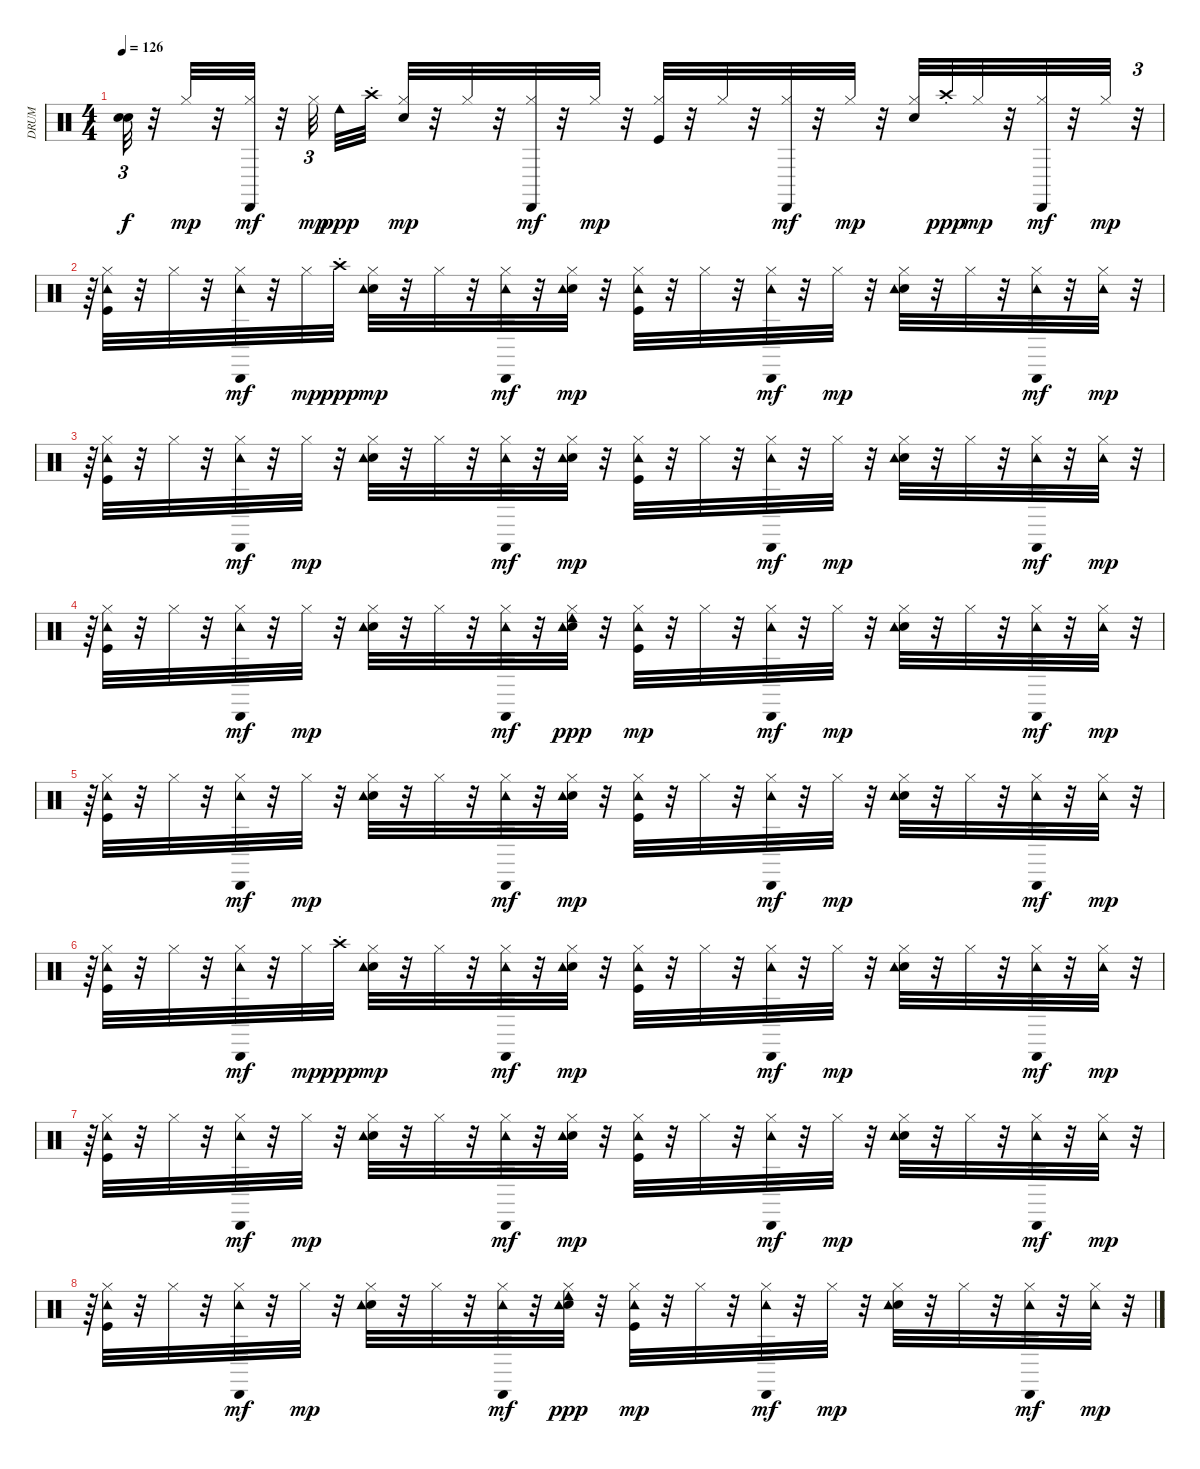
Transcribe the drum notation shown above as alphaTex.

\track ("DRUM" "DRUM") {instrument percussion}
\staff {score}
\articulation defaults
\ts (4 4)
\tempo 126
\clef neutral
\ks c
("Snare (hit)"{t} "Snare (hit)"{t}).32{tu (3 2) dy f} r.32 "Hi-Hat (closed)".32{dy mp} r.32 ("Hi-Hat (closed)" "Cabasa (hit)").32{dy mf} r.32 "Hi-Hat (closed)".32{tu (3 2) dy mp} "Cowbell low (hit)".32{dy ppp} "Crash high (choke)".32 ("Snare (hit) 2" "Hi-Hat (closed)").32{dy mp} r.32 "Hi-Hat (closed)".32 r.32 ("Hi-Hat (closed)" "Cabasa (hit)").32{dy mf} r.32 "Hi-Hat (closed)".32{dy mp} r.32 ("Kick (hit)" "Hi-Hat (closed)").32 r.32 "Hi-Hat (closed)".32 r.32 ("Hi-Hat (closed)" "Cabasa (hit)").32{dy mf} r.32 "Hi-Hat (closed)".32{dy mp} r.32 ("Snare (hit) 2" "Hi-Hat (closed)").32 "Crash high (choke)".32{dy ppp} "Hi-Hat (closed)".32{dy mp} r.32 ("Hi-Hat (closed)" "Cabasa (hit)").32{dy mf} r.32 "Hi-Hat (closed)".32{dy mp} r.32{tu (3 2)} |
r.64{tu (3 2)} ("Kick (hit)" "Hi-Hat (closed)" "Tambourine (hit)").32 r.32 "Hi-Hat (closed)".32 r.32 ("Hi-Hat (closed)" "Tambourine (hit)" "Cabasa (hit)").32{dy mf} r.32 "Hi-Hat (closed)".32{dy mp} "Crash high (choke)".32{dy ppp} ("Snare (hit) 2" "Hi-Hat (closed)" "Tambourine (hit)").32{dy mp} r.32 "Hi-Hat (closed)".32 r.32 ("Hi-Hat (closed)" "Tambourine (hit)" "Cabasa (hit)").32{dy mf} r.32 ("Snare (hit) 2" "Hi-Hat (closed)" "Tambourine (hit)").32{dy mp} r.32 ("Kick (hit)" "Hi-Hat (closed)" "Tambourine (hit)").32 r.32 "Hi-Hat (closed)".32 r.32 ("Hi-Hat (closed)" "Tambourine (hit)" "Cabasa (hit)").32{dy mf} r.32 "Hi-Hat (closed)".32{dy mp} r.32 ("Snare (hit) 2" "Hi-Hat (closed)" "Tambourine (hit)").32 r.32 "Hi-Hat (closed)".32 r.32 ("Hi-Hat (closed)" "Tambourine (hit)" "Cabasa (hit)").32{dy mf} r.32 ("Hi-Hat (closed)" "Tambourine (hit)").32{dy mp} r.32{tu (3 2)} |
r.64{tu (3 2)} ("Kick (hit)" "Hi-Hat (closed)" "Tambourine (hit)").32 r.32 "Hi-Hat (closed)".32 r.32 ("Hi-Hat (closed)" "Tambourine (hit)" "Cabasa (hit)").32{dy mf} r.32 "Hi-Hat (closed)".32{dy mp} r.32 ("Snare (hit) 2" "Hi-Hat (closed)" "Tambourine (hit)").32 r.32 "Hi-Hat (closed)".32 r.32 ("Hi-Hat (closed)" "Tambourine (hit)" "Cabasa (hit)").32{dy mf} r.32 ("Snare (hit) 2" "Hi-Hat (closed)" "Tambourine (hit)").32{dy mp} r.32 ("Kick (hit)" "Hi-Hat (closed)" "Tambourine (hit)").32 r.32 "Hi-Hat (closed)".32 r.32 ("Hi-Hat (closed)" "Tambourine (hit)" "Cabasa (hit)").32{dy mf} r.32 "Hi-Hat (closed)".32{dy mp} r.32 ("Snare (hit) 2" "Hi-Hat (closed)" "Tambourine (hit)").32 r.32 "Hi-Hat (closed)".32 r.32 ("Hi-Hat (closed)" "Tambourine (hit)" "Cabasa (hit)").32{dy mf} r.32 ("Hi-Hat (closed)" "Tambourine (hit)").32{dy mp} r.32{tu (3 2)} |
r.64{tu (3 2)} ("Kick (hit)" "Hi-Hat (closed)" "Tambourine (hit)").32 r.32 "Hi-Hat (closed)".32 r.32 ("Hi-Hat (closed)" "Tambourine (hit)" "Cabasa (hit)").32{dy mf} r.32 "Hi-Hat (closed)".32{dy mp} r.32 ("Snare (hit) 2" "Hi-Hat (closed)" "Tambourine (hit)").32 r.32 "Hi-Hat (closed)".32 r.32 ("Hi-Hat (closed)" "Tambourine (hit)" "Cabasa (hit)").32{dy mf} r.32 ("Snare (hit) 2" "Hi-Hat (closed)" "Tambourine (hit)" "Cowbell low (hit)").32{dy ppp} r.32 ("Kick (hit)" "Hi-Hat (closed)" "Tambourine (hit)").32{dy mp} r.32 "Hi-Hat (closed)".32 r.32 ("Hi-Hat (closed)" "Tambourine (hit)" "Cabasa (hit)").32{dy mf} r.32 "Hi-Hat (closed)".32{dy mp} r.32 ("Snare (hit) 2" "Hi-Hat (closed)" "Tambourine (hit)").32 r.32 "Hi-Hat (closed)".32 r.32 ("Hi-Hat (closed)" "Tambourine (hit)" "Cabasa (hit)").32{dy mf} r.32 ("Hi-Hat (closed)" "Tambourine (hit)").32{dy mp} r.32{tu (3 2)} |
r.64{tu (3 2)} ("Kick (hit)" "Hi-Hat (closed)" "Tambourine (hit)").32 r.32 "Hi-Hat (closed)".32 r.32 ("Hi-Hat (closed)" "Tambourine (hit)" "Cabasa (hit)").32{dy mf} r.32 "Hi-Hat (closed)".32{dy mp} r.32 ("Snare (hit) 2" "Hi-Hat (closed)" "Tambourine (hit)").32 r.32 "Hi-Hat (closed)".32 r.32 ("Hi-Hat (closed)" "Tambourine (hit)" "Cabasa (hit)").32{dy mf} r.32 ("Snare (hit) 2" "Hi-Hat (closed)" "Tambourine (hit)").32{dy mp} r.32 ("Kick (hit)" "Hi-Hat (closed)" "Tambourine (hit)").32 r.32 "Hi-Hat (closed)".32 r.32 ("Hi-Hat (closed)" "Tambourine (hit)" "Cabasa (hit)").32{dy mf} r.32 "Hi-Hat (closed)".32{dy mp} r.32 ("Snare (hit) 2" "Hi-Hat (closed)" "Tambourine (hit)").32 r.32 "Hi-Hat (closed)".32 r.32 ("Hi-Hat (closed)" "Tambourine (hit)" "Cabasa (hit)").32{dy mf} r.32 ("Hi-Hat (closed)" "Tambourine (hit)").32{dy mp} r.32{tu (3 2)} |
r.64{tu (3 2)} ("Kick (hit)" "Hi-Hat (closed)" "Tambourine (hit)").32 r.32 "Hi-Hat (closed)".32 r.32 ("Hi-Hat (closed)" "Tambourine (hit)" "Cabasa (hit)").32{dy mf} r.32 "Hi-Hat (closed)".32{dy mp} "Crash high (choke)".32{dy ppp} ("Snare (hit) 2" "Hi-Hat (closed)" "Tambourine (hit)").32{dy mp} r.32 "Hi-Hat (closed)".32 r.32 ("Hi-Hat (closed)" "Tambourine (hit)" "Cabasa (hit)").32{dy mf} r.32 ("Snare (hit) 2" "Hi-Hat (closed)" "Tambourine (hit)").32{dy mp} r.32 ("Kick (hit)" "Hi-Hat (closed)" "Tambourine (hit)").32 r.32 "Hi-Hat (closed)".32 r.32 ("Hi-Hat (closed)" "Tambourine (hit)" "Cabasa (hit)").32{dy mf} r.32 "Hi-Hat (closed)".32{dy mp} r.32 ("Snare (hit) 2" "Hi-Hat (closed)" "Tambourine (hit)").32 r.32 "Hi-Hat (closed)".32 r.32 ("Hi-Hat (closed)" "Tambourine (hit)" "Cabasa (hit)").32{dy mf} r.32 ("Hi-Hat (closed)" "Tambourine (hit)").32{dy mp} r.32{tu (3 2)} |
r.64{tu (3 2)} ("Kick (hit)" "Hi-Hat (closed)" "Tambourine (hit)").32 r.32 "Hi-Hat (closed)".32 r.32 ("Hi-Hat (closed)" "Tambourine (hit)" "Cabasa (hit)").32{dy mf} r.32 "Hi-Hat (closed)".32{dy mp} r.32 ("Snare (hit) 2" "Hi-Hat (closed)" "Tambourine (hit)").32 r.32 "Hi-Hat (closed)".32 r.32 ("Hi-Hat (closed)" "Tambourine (hit)" "Cabasa (hit)").32{dy mf} r.32 ("Snare (hit) 2" "Hi-Hat (closed)" "Tambourine (hit)").32{dy mp} r.32 ("Kick (hit)" "Hi-Hat (closed)" "Tambourine (hit)").32 r.32 "Hi-Hat (closed)".32 r.32 ("Hi-Hat (closed)" "Tambourine (hit)" "Cabasa (hit)").32{dy mf} r.32 "Hi-Hat (closed)".32{dy mp} r.32 ("Snare (hit) 2" "Hi-Hat (closed)" "Tambourine (hit)").32 r.32 "Hi-Hat (closed)".32 r.32 ("Hi-Hat (closed)" "Tambourine (hit)" "Cabasa (hit)").32{dy mf} r.32 ("Hi-Hat (closed)" "Tambourine (hit)").32{dy mp} r.32{tu (3 2)} |
r.64{tu (3 2)} ("Kick (hit)" "Hi-Hat (closed)" "Tambourine (hit)").32 r.32 "Hi-Hat (closed)".32 r.32 ("Hi-Hat (closed)" "Tambourine (hit)" "Cabasa (hit)").32{dy mf} r.32 "Hi-Hat (closed)".32{dy mp} r.32 ("Snare (hit) 2" "Hi-Hat (closed)" "Tambourine (hit)").32 r.32 "Hi-Hat (closed)".32 r.32 ("Hi-Hat (closed)" "Tambourine (hit)" "Cabasa (hit)").32{dy mf} r.32 ("Snare (hit) 2" "Hi-Hat (closed)" "Tambourine (hit)" "Cowbell low (hit)").32{dy ppp} r.32 ("Kick (hit)" "Hi-Hat (closed)" "Tambourine (hit)").32{dy mp} r.32 "Hi-Hat (closed)".32 r.32 ("Hi-Hat (closed)" "Tambourine (hit)" "Cabasa (hit)").32{dy mf} r.32 "Hi-Hat (closed)".32{dy mp} r.32 ("Snare (hit) 2" "Hi-Hat (closed)" "Tambourine (hit)").32 r.32 "Hi-Hat (closed)".32 r.32 ("Hi-Hat (closed)" "Tambourine (hit)" "Cabasa (hit)").32{dy mf} r.32 ("Hi-Hat (closed)" "Tambourine (hit)").32{dy mp} r.32{tu (3 2)}
